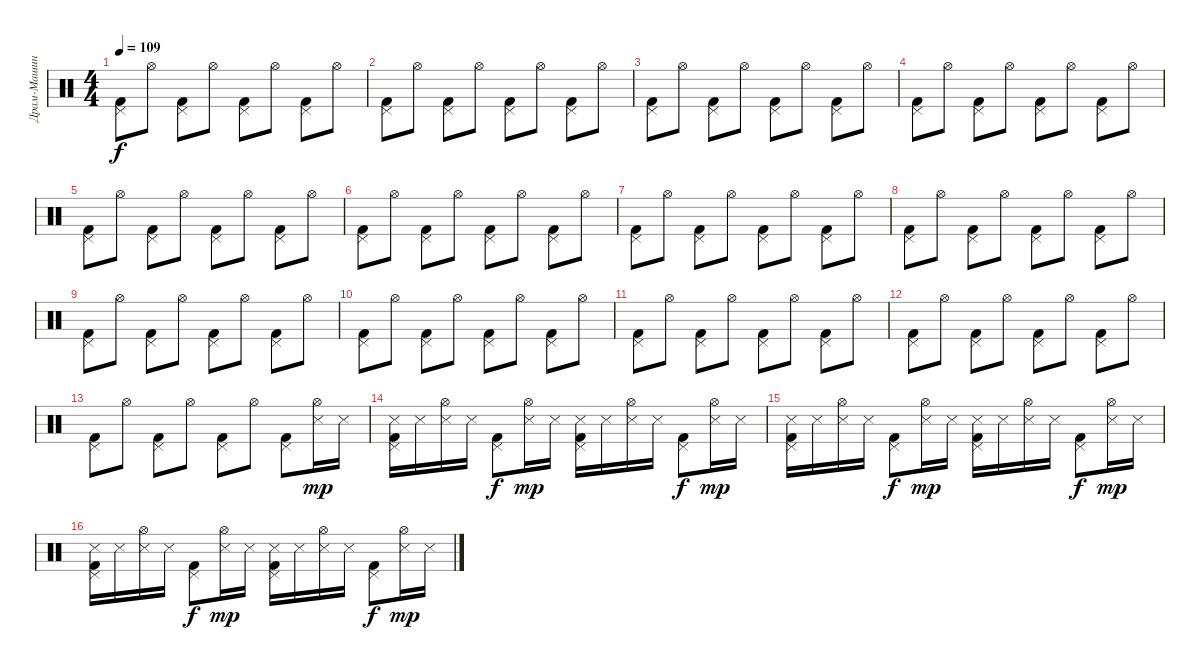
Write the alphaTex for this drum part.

\track ("Драм-Машина" "Драм-Машин") {instrument percussion}
\staff {score}
\articulation defaults
\ts (4 4)
\tempo 109
\clef neutral
\ks c
("Pedal Hi-Hat (hit)" "Kick (hit) 2").8{dy f} "Hi-Hat (open)".8 ("Kick (hit) 2" "Pedal Hi-Hat (hit)").8 "Hi-Hat (open)".8 ("Kick (hit) 2" "Pedal Hi-Hat (hit)").8 "Hi-Hat (open)".8 ("Kick (hit) 2" "Pedal Hi-Hat (hit)").8 "Hi-Hat (open)".8 |
("Kick (hit) 2" "Pedal Hi-Hat (hit)").8 "Hi-Hat (open)".8 ("Kick (hit) 2" "Pedal Hi-Hat (hit)").8 "Hi-Hat (open)".8 ("Kick (hit) 2" "Pedal Hi-Hat (hit)").8 "Hi-Hat (open)".8 ("Kick (hit) 2" "Pedal Hi-Hat (hit)").8 "Hi-Hat (open)".8 |
("Kick (hit) 2" "Pedal Hi-Hat (hit)").8 "Hi-Hat (open)".8 ("Pedal Hi-Hat (hit)" "Kick (hit) 2").8 "Hi-Hat (open)".8 ("Pedal Hi-Hat (hit)" "Kick (hit) 2").8 "Hi-Hat (open)".8 ("Kick (hit) 2" "Pedal Hi-Hat (hit)").8 "Hi-Hat (open)".8 |
("Kick (hit) 2" "Pedal Hi-Hat (hit)").8 "Hi-Hat (open)".8 ("Pedal Hi-Hat (hit)" "Kick (hit) 2").8 "Hi-Hat (open)".8 ("Kick (hit) 2" "Pedal Hi-Hat (hit)").8 "Hi-Hat (open)".8 ("Pedal Hi-Hat (hit)" "Kick (hit) 2").8 "Hi-Hat (open)".8 |
("Pedal Hi-Hat (hit)" "Kick (hit) 2").8 "Hi-Hat (open)".8 ("Kick (hit) 2" "Pedal Hi-Hat (hit)").8 "Hi-Hat (open)".8 ("Kick (hit) 2" "Pedal Hi-Hat (hit)").8 "Hi-Hat (open)".8 ("Kick (hit) 2" "Pedal Hi-Hat (hit)").8 "Hi-Hat (open)".8 |
("Kick (hit) 2" "Pedal Hi-Hat (hit)").8 "Hi-Hat (open)".8 ("Kick (hit) 2" "Pedal Hi-Hat (hit)").8 "Hi-Hat (open)".8 ("Kick (hit) 2" "Pedal Hi-Hat (hit)").8 "Hi-Hat (open)".8 ("Kick (hit) 2" "Pedal Hi-Hat (hit)").8 "Hi-Hat (open)".8 |
("Kick (hit) 2" "Pedal Hi-Hat (hit)").8 "Hi-Hat (open)".8 ("Pedal Hi-Hat (hit)" "Kick (hit) 2").8 "Hi-Hat (open)".8 ("Pedal Hi-Hat (hit)" "Kick (hit) 2").8 "Hi-Hat (open)".8 ("Kick (hit) 2" "Pedal Hi-Hat (hit)").8 "Hi-Hat (open)".8 |
("Kick (hit) 2" "Pedal Hi-Hat (hit)").8 "Hi-Hat (open)".8 ("Pedal Hi-Hat (hit)" "Kick (hit) 2").8 "Hi-Hat (open)".8 ("Kick (hit) 2" "Pedal Hi-Hat (hit)").8 "Hi-Hat (open)".8 ("Pedal Hi-Hat (hit)" "Kick (hit) 2").8 "Hi-Hat (open)".8 |
("Pedal Hi-Hat (hit)" "Kick (hit) 2").8 "Hi-Hat (open)".8 ("Kick (hit) 2" "Pedal Hi-Hat (hit)").8 "Hi-Hat (open)".8 ("Kick (hit) 2" "Pedal Hi-Hat (hit)").8 "Hi-Hat (open)".8 ("Kick (hit) 2" "Pedal Hi-Hat (hit)").8 "Hi-Hat (open)".8 |
("Kick (hit) 2" "Pedal Hi-Hat (hit)").8 "Hi-Hat (open)".8 ("Kick (hit) 2" "Pedal Hi-Hat (hit)").8 "Hi-Hat (open)".8 ("Kick (hit) 2" "Pedal Hi-Hat (hit)").8 "Hi-Hat (open)".8 ("Kick (hit) 2" "Pedal Hi-Hat (hit)").8 "Hi-Hat (open)".8 |
("Kick (hit) 2" "Pedal Hi-Hat (hit)").8 "Hi-Hat (open)".8 ("Pedal Hi-Hat (hit)" "Kick (hit) 2").8 "Hi-Hat (open)".8 ("Pedal Hi-Hat (hit)" "Kick (hit) 2").8 "Hi-Hat (open)".8 ("Kick (hit) 2" "Pedal Hi-Hat (hit)").8 "Hi-Hat (open)".8 |
("Kick (hit) 2" "Pedal Hi-Hat (hit)").8 "Hi-Hat (open)".8 ("Pedal Hi-Hat (hit)" "Kick (hit) 2").8 "Hi-Hat (open)".8 ("Kick (hit) 2" "Pedal Hi-Hat (hit)").8 "Hi-Hat (open)".8 ("Pedal Hi-Hat (hit)" "Kick (hit) 2").8 "Hi-Hat (open)".8 |
("Pedal Hi-Hat (hit)" "Kick (hit) 2").8 "Hi-Hat (open)".8 ("Kick (hit) 2" "Pedal Hi-Hat (hit)").8 "Hi-Hat (open)".8 ("Kick (hit) 2" "Pedal Hi-Hat (hit)").8 "Hi-Hat (open)".8 ("Kick (hit) 2" "Pedal Hi-Hat (hit)").8 ("Hi-Hat (open)" "Snare (side stick) 3").16{dy mp} "Snare (side stick) 3".16 |
("Kick (hit) 2" "Snare (side stick) 3" "Pedal Hi-Hat (hit)").16 "Snare (side stick) 3".16 ("Hi-Hat (open)" "Snare (side stick) 3").16 "Snare (side stick) 3".16 ("Pedal Hi-Hat (hit)" "Kick (hit) 2").8{dy f} ("Snare (side stick) 3" "Hi-Hat (open)").16{dy mp} "Snare (side stick) 3".16 ("Snare (side stick) 3" "Pedal Hi-Hat (hit)" "Kick (hit) 2").16 "Snare (side stick) 3".16 ("Snare (side stick) 3" "Hi-Hat (open)").16 "Snare (side stick) 3".16 ("Kick (hit) 2" "Pedal Hi-Hat (hit)").8{dy f} ("Snare (side stick) 3" "Hi-Hat (open)").16{dy mp} "Snare (side stick) 3".16 |
("Kick (hit) 2" "Snare (side stick) 3" "Pedal Hi-Hat (hit)").16 "Snare (side stick) 3".16 ("Hi-Hat (open)" "Snare (side stick) 3").16 "Snare (side stick) 3".16 ("Kick (hit) 2" "Pedal Hi-Hat (hit)").8{dy f} ("Hi-Hat (open)" "Snare (side stick) 3").16{dy mp} "Snare (side stick) 3".16 ("Snare (side stick) 3" "Kick (hit) 2" "Pedal Hi-Hat (hit)").16 "Snare (side stick) 3".16 ("Snare (side stick) 3" "Hi-Hat (open)").16 "Snare (side stick) 3".16 ("Pedal Hi-Hat (hit)" "Kick (hit) 2").8{dy f} ("Snare (side stick) 3" "Hi-Hat (open)").16{dy mp} "Snare (side stick) 3".16 |
("Kick (hit) 2" "Snare (side stick) 3" "Pedal Hi-Hat (hit)").16 "Snare (side stick) 3".16 ("Hi-Hat (open)" "Snare (side stick) 3").16 "Snare (side stick) 3".16 ("Pedal Hi-Hat (hit)" "Kick (hit) 2").8{dy f} ("Snare (side stick) 3" "Hi-Hat (open)").16{dy mp} "Snare (side stick) 3".16 ("Snare (side stick) 3" "Pedal Hi-Hat (hit)" "Kick (hit) 2").16 "Snare (side stick) 3".16 ("Hi-Hat (open)" "Snare (side stick) 3").16 "Snare (side stick) 3".16 ("Pedal Hi-Hat (hit)" "Kick (hit) 2").8{dy f} ("Snare (side stick) 3" "Hi-Hat (open)").16{dy mp} "Snare (side stick) 3".16
